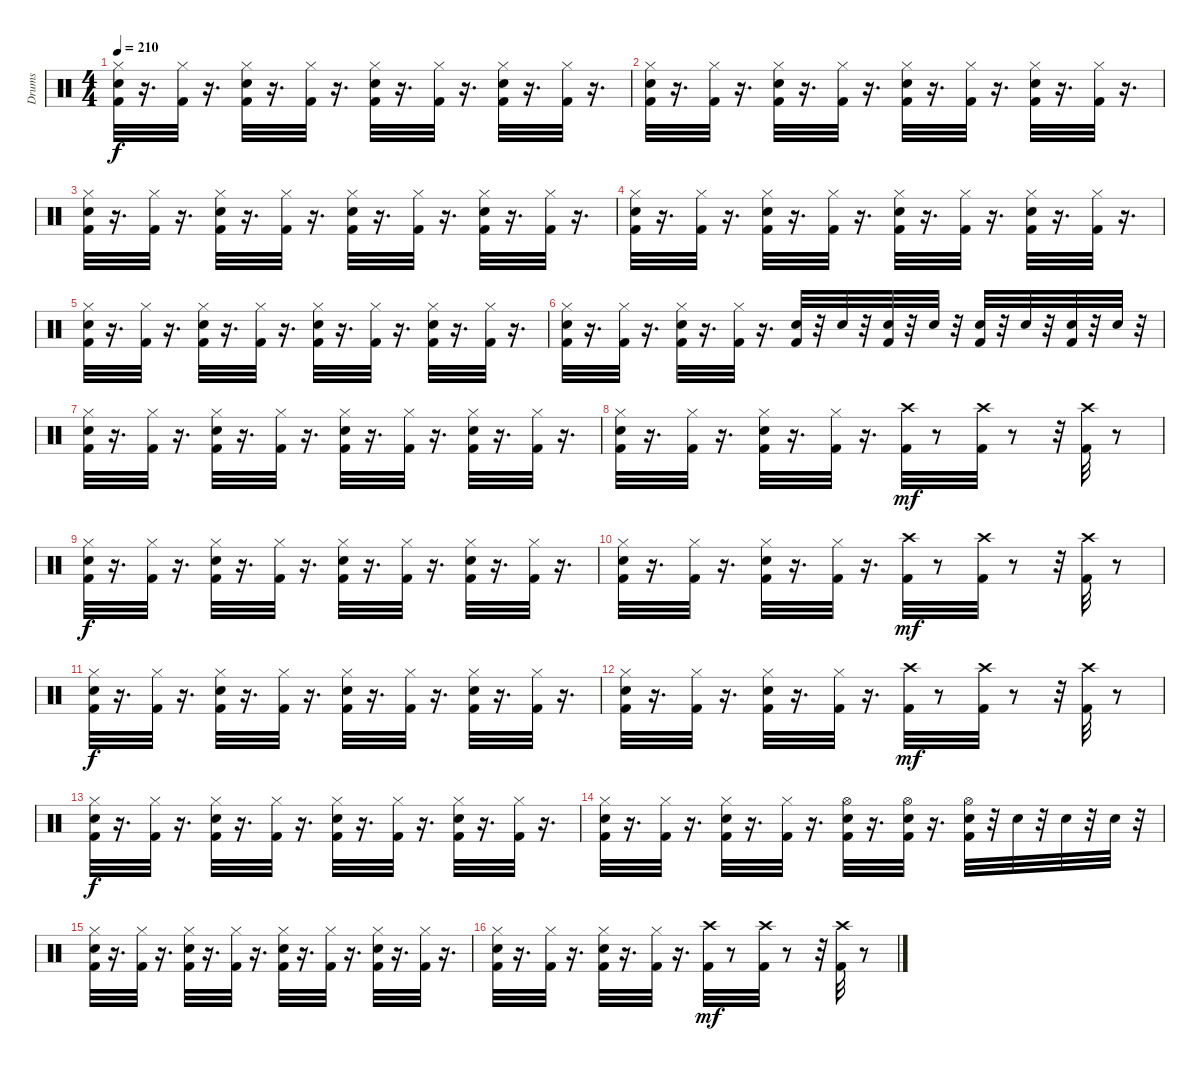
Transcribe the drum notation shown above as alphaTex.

\track ("Drums" "Drums") {instrument percussion}
\staff {score}
\articulation defaults
\ts (4 4)
\tempo 210
\clef neutral
\ks c
("Kick (hit) 2" "Snare (hit) 2" "Hi-Hat (closed)").32{dy f} r.16{d} ("Kick (hit) 2" "Hi-Hat (closed)").32 r.16{d} ("Kick (hit) 2" "Snare (hit) 2" "Hi-Hat (closed)").32 r.16{d} ("Kick (hit) 2" "Hi-Hat (closed)").32 r.16{d} ("Kick (hit) 2" "Snare (hit) 2" "Hi-Hat (closed)").32 r.16{d} ("Kick (hit) 2" "Hi-Hat (closed)").32 r.16{d} ("Kick (hit) 2" "Snare (hit) 2" "Hi-Hat (closed)").32 r.16{d} ("Kick (hit) 2" "Hi-Hat (closed)").32 r.16{d} |
("Kick (hit) 2" "Snare (hit) 2" "Hi-Hat (closed)").32 r.16{d} ("Kick (hit) 2" "Hi-Hat (closed)").32 r.16{d} ("Kick (hit) 2" "Snare (hit) 2" "Hi-Hat (closed)").32 r.16{d} ("Kick (hit) 2" "Hi-Hat (closed)").32 r.16{d} ("Kick (hit) 2" "Snare (hit) 2" "Hi-Hat (closed)").32 r.16{d} ("Kick (hit) 2" "Hi-Hat (closed)").32 r.16{d} ("Kick (hit) 2" "Snare (hit) 2" "Hi-Hat (closed)").32 r.16{d} ("Kick (hit) 2" "Hi-Hat (closed)").32 r.16{d} |
("Kick (hit) 2" "Snare (hit) 2" "Hi-Hat (closed)").32 r.16{d} ("Kick (hit) 2" "Hi-Hat (closed)").32 r.16{d} ("Kick (hit) 2" "Snare (hit) 2" "Hi-Hat (closed)").32 r.16{d} ("Kick (hit) 2" "Hi-Hat (closed)").32 r.16{d} ("Kick (hit) 2" "Snare (hit) 2" "Hi-Hat (closed)").32 r.16{d} ("Kick (hit) 2" "Hi-Hat (closed)").32 r.16{d} ("Kick (hit) 2" "Snare (hit) 2" "Hi-Hat (closed)").32 r.16{d} ("Kick (hit) 2" "Hi-Hat (closed)").32 r.16{d} |
("Kick (hit) 2" "Snare (hit) 2" "Hi-Hat (closed)").32 r.16{d} ("Kick (hit) 2" "Hi-Hat (closed)").32 r.16{d} ("Kick (hit) 2" "Snare (hit) 2" "Hi-Hat (closed)").32 r.16{d} ("Kick (hit) 2" "Hi-Hat (closed)").32 r.16{d} ("Kick (hit) 2" "Snare (hit) 2" "Hi-Hat (closed)").32 r.16{d} ("Kick (hit) 2" "Hi-Hat (closed)").32 r.16{d} ("Kick (hit) 2" "Snare (hit) 2" "Hi-Hat (closed)").32 r.16{d} ("Kick (hit) 2" "Hi-Hat (closed)").32 r.16{d} |
("Kick (hit) 2" "Snare (hit) 2" "Hi-Hat (closed)").32 r.16{d} ("Kick (hit) 2" "Hi-Hat (closed)").32 r.16{d} ("Kick (hit) 2" "Snare (hit) 2" "Hi-Hat (closed)").32 r.16{d} ("Kick (hit) 2" "Hi-Hat (closed)").32 r.16{d} ("Kick (hit) 2" "Snare (hit) 2" "Hi-Hat (closed)").32 r.16{d} ("Kick (hit) 2" "Hi-Hat (closed)").32 r.16{d} ("Kick (hit) 2" "Snare (hit) 2" "Hi-Hat (closed)").32 r.16{d} ("Kick (hit) 2" "Hi-Hat (closed)").32 r.16{d} |
("Kick (hit) 2" "Snare (hit) 2" "Hi-Hat (closed)").32 r.16{d} ("Kick (hit) 2" "Hi-Hat (closed)").32 r.16{d} ("Kick (hit) 2" "Snare (hit) 2" "Hi-Hat (closed)").32 r.16{d} ("Kick (hit) 2" "Hi-Hat (closed)").32 r.16{d} ("Kick (hit) 2" "Snare (hit) 2").32 r.32 "Snare (hit) 2".32 r.32 ("Kick (hit) 2" "Snare (hit) 2").32 r.32 "Snare (hit) 2".32 r.32 ("Kick (hit) 2" "Snare (hit) 2").32 r.32 "Snare (hit) 2".32 r.32 ("Kick (hit) 2" "Snare (hit) 2").32 r.32 "Snare (hit) 2".32 r.32 |
("Kick (hit) 2" "Snare (hit) 2" "Hi-Hat (closed)").32 r.16{d} ("Kick (hit) 2" "Hi-Hat (closed)").32 r.16{d} ("Kick (hit) 2" "Snare (hit) 2" "Hi-Hat (closed)").32 r.16{d} ("Kick (hit) 2" "Hi-Hat (closed)").32 r.16{d} ("Kick (hit) 2" "Snare (hit) 2" "Hi-Hat (closed)").32 r.16{d} ("Kick (hit) 2" "Hi-Hat (closed)").32 r.16{d} ("Kick (hit) 2" "Snare (hit) 2" "Hi-Hat (closed)").32 r.16{d} ("Kick (hit) 2" "Hi-Hat (closed)").32 r.16{d} |
("Kick (hit) 2" "Snare (hit) 2" "Hi-Hat (closed)").32 r.16{d} ("Kick (hit) 2" "Hi-Hat (closed)").32 r.16{d} ("Kick (hit) 2" "Snare (hit) 2" "Hi-Hat (closed)").32 r.16{d} ("Kick (hit) 2" "Hi-Hat (closed)").32 r.16{d} ("Kick (hit) 2" "Crash high (hit)").32{dy mf} r.8 ("Kick (hit) 2" "Crash high (hit)").32 r.8 r.32 ("Kick (hit) 2" "Crash high (hit)").32 r.8 |
("Kick (hit) 2" "Snare (hit) 2" "Hi-Hat (closed)").32{dy f} r.16{d} ("Kick (hit) 2" "Hi-Hat (closed)").32 r.16{d} ("Kick (hit) 2" "Snare (hit) 2" "Hi-Hat (closed)").32 r.16{d} ("Kick (hit) 2" "Hi-Hat (closed)").32 r.16{d} ("Kick (hit) 2" "Snare (hit) 2" "Hi-Hat (closed)").32 r.16{d} ("Kick (hit) 2" "Hi-Hat (closed)").32 r.16{d} ("Kick (hit) 2" "Snare (hit) 2" "Hi-Hat (closed)").32 r.16{d} ("Kick (hit) 2" "Hi-Hat (closed)").32 r.16{d} |
("Kick (hit) 2" "Snare (hit) 2" "Hi-Hat (closed)").32 r.16{d} ("Kick (hit) 2" "Hi-Hat (closed)").32 r.16{d} ("Kick (hit) 2" "Snare (hit) 2" "Hi-Hat (closed)").32 r.16{d} ("Kick (hit) 2" "Hi-Hat (closed)").32 r.16{d} ("Kick (hit) 2" "Crash high (hit)").32{dy mf} r.8 ("Kick (hit) 2" "Crash high (hit)").32 r.8 r.32 ("Kick (hit) 2" "Crash high (hit)").32 r.8 |
("Kick (hit) 2" "Snare (hit) 2" "Hi-Hat (closed)").32{dy f} r.16{d} ("Kick (hit) 2" "Hi-Hat (closed)").32 r.16{d} ("Kick (hit) 2" "Snare (hit) 2" "Hi-Hat (closed)").32 r.16{d} ("Kick (hit) 2" "Hi-Hat (closed)").32 r.16{d} ("Kick (hit) 2" "Snare (hit) 2" "Hi-Hat (closed)").32 r.16{d} ("Kick (hit) 2" "Hi-Hat (closed)").32 r.16{d} ("Kick (hit) 2" "Snare (hit) 2" "Hi-Hat (closed)").32 r.16{d} ("Kick (hit) 2" "Hi-Hat (closed)").32 r.16{d} |
("Kick (hit) 2" "Snare (hit) 2" "Hi-Hat (closed)").32 r.16{d} ("Kick (hit) 2" "Hi-Hat (closed)").32 r.16{d} ("Kick (hit) 2" "Snare (hit) 2" "Hi-Hat (closed)").32 r.16{d} ("Kick (hit) 2" "Hi-Hat (closed)").32 r.16{d} ("Kick (hit) 2" "Crash high (hit)").32{dy mf} r.8 ("Kick (hit) 2" "Crash high (hit)").32 r.8 r.32 ("Kick (hit) 2" "Crash high (hit)").32 r.8 |
("Kick (hit) 2" "Snare (hit) 2" "Hi-Hat (closed)").32{dy f} r.16{d} ("Kick (hit) 2" "Hi-Hat (closed)").32 r.16{d} ("Kick (hit) 2" "Snare (hit) 2" "Hi-Hat (closed)").32 r.16{d} ("Kick (hit) 2" "Hi-Hat (closed)").32 r.16{d} ("Kick (hit) 2" "Snare (hit) 2" "Hi-Hat (closed)").32 r.16{d} ("Kick (hit) 2" "Hi-Hat (closed)").32 r.16{d} ("Kick (hit) 2" "Snare (hit) 2" "Hi-Hat (closed)").32 r.16{d} ("Kick (hit) 2" "Hi-Hat (closed)").32 r.16{d} |
("Kick (hit) 2" "Snare (hit) 2" "Hi-Hat (closed)").32 r.16{d} ("Kick (hit) 2" "Hi-Hat (closed)").32 r.16{d} ("Kick (hit) 2" "Snare (hit) 2" "Hi-Hat (closed)").32 r.16{d} ("Kick (hit) 2" "Hi-Hat (closed)").32 r.16{d} ("Kick (hit) 2" "Snare (hit) 2" "Hi-Hat (open)").32 r.16{d} ("Kick (hit) 2" "Snare (hit) 2" "Hi-Hat (open)").32 r.16{d} ("Kick (hit) 2" "Snare (hit) 2" "Hi-Hat (open)").32 r.32 "Snare (hit) 2".32 r.32 "Snare (hit) 2".32 r.32 "Snare (hit) 2".32 r.32 |
("Kick (hit) 2" "Snare (hit) 2" "Hi-Hat (closed)").32 r.16{d} ("Kick (hit) 2" "Hi-Hat (closed)").32 r.16{d} ("Kick (hit) 2" "Snare (hit) 2" "Hi-Hat (closed)").32 r.16{d} ("Kick (hit) 2" "Hi-Hat (closed)").32 r.16{d} ("Kick (hit) 2" "Snare (hit) 2" "Hi-Hat (closed)").32 r.16{d} ("Kick (hit) 2" "Hi-Hat (closed)").32 r.16{d} ("Kick (hit) 2" "Snare (hit) 2" "Hi-Hat (closed)").32 r.16{d} ("Kick (hit) 2" "Hi-Hat (closed)").32 r.16{d} |
("Kick (hit) 2" "Snare (hit) 2" "Hi-Hat (closed)").32 r.16{d} ("Kick (hit) 2" "Hi-Hat (closed)").32 r.16{d} ("Kick (hit) 2" "Snare (hit) 2" "Hi-Hat (closed)").32 r.16{d} ("Kick (hit) 2" "Hi-Hat (closed)").32 r.16{d} ("Kick (hit) 2" "Crash high (hit)").32{dy mf} r.8 ("Kick (hit) 2" "Crash high (hit)").32 r.8 r.32 ("Kick (hit) 2" "Crash high (hit)").32 r.8
